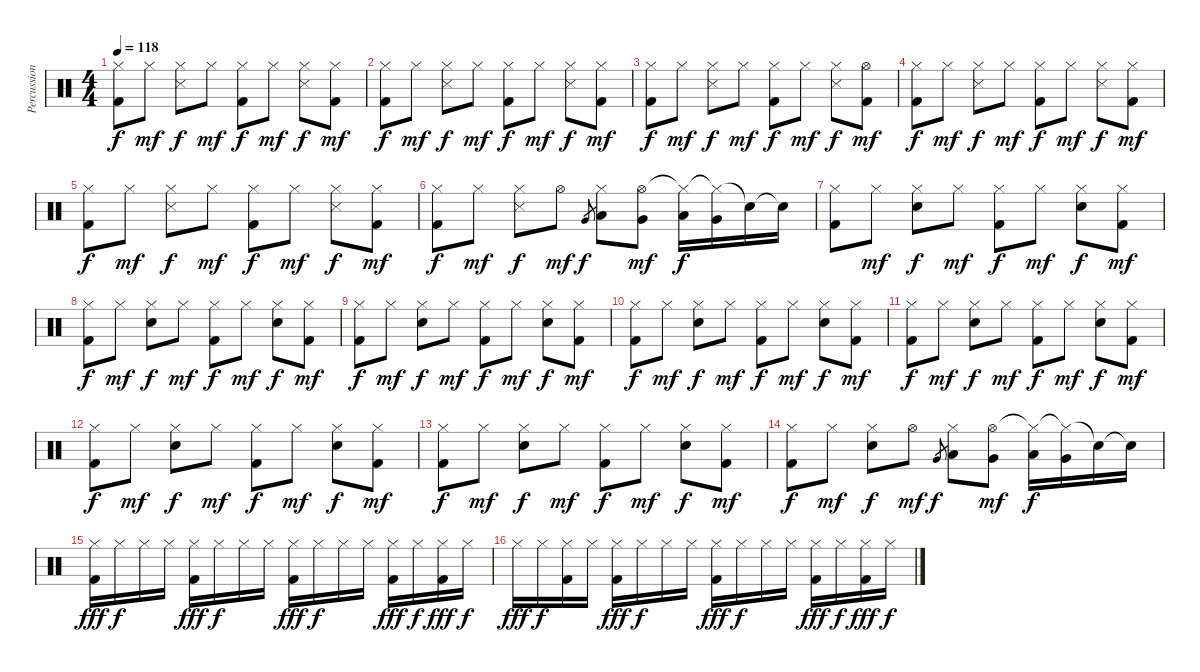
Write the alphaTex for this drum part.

\track ("Percussion" "Percussion") {instrument percussion}
\staff {score}
\articulation defaults
\ts (4 4)
\tempo 118
\clef neutral
\ks c
("Hi-Hat (closed)" "Kick (hit) 2").8{dy f} "Hi-Hat (closed)".8{dy mf} ("Hi-Hat (closed)" "Snare (side stick) 3").8{dy f} "Hi-Hat (closed)".8{dy mf} ("Hi-Hat (closed)" "Kick (hit) 2").8{dy f} "Hi-Hat (closed)".8{dy mf} ("Hi-Hat (closed)" "Snare (side stick) 3").8{dy f} ("Hi-Hat (closed)" "Kick (hit) 2").8{dy mf} |
("Hi-Hat (closed)" "Kick (hit) 2").8{dy f} "Hi-Hat (closed)".8{dy mf} ("Hi-Hat (closed)" "Snare (side stick) 3").8{dy f} "Hi-Hat (closed)".8{dy mf} ("Hi-Hat (closed)" "Kick (hit) 2").8{dy f} "Hi-Hat (closed)".8{dy mf} ("Hi-Hat (closed)" "Snare (side stick) 3").8{dy f} ("Hi-Hat (closed)" "Kick (hit) 2").8{dy mf} |
("Hi-Hat (closed)" "Kick (hit) 2").8{dy f} "Hi-Hat (closed)".8{dy mf} ("Hi-Hat (closed)" "Snare (side stick) 3").8{dy f} "Hi-Hat (closed)".8{dy mf} ("Hi-Hat (closed)" "Kick (hit) 2").8{dy f} "Hi-Hat (closed)".8{dy mf} ("Hi-Hat (closed)" "Snare (side stick) 3").8{dy f} ("Hi-Hat (open)" "Kick (hit) 2").8{dy mf} |
("Hi-Hat (closed)" "Kick (hit) 2").8{dy f} "Hi-Hat (closed)".8{dy mf} ("Hi-Hat (closed)" "Snare (side stick) 3").8{dy f} "Hi-Hat (closed)".8{dy mf} ("Hi-Hat (closed)" "Kick (hit) 2").8{dy f} "Hi-Hat (closed)".8{dy mf} ("Hi-Hat (closed)" "Snare (side stick) 3").8{dy f} ("Hi-Hat (closed)" "Kick (hit) 2").8{dy mf} |
("Hi-Hat (closed)" "Kick (hit) 2").8{dy f} "Hi-Hat (closed)".8{dy mf} ("Hi-Hat (closed)" "Snare (side stick) 3").8{dy f} "Hi-Hat (closed)".8{dy mf} ("Hi-Hat (closed)" "Kick (hit) 2").8{dy f} "Hi-Hat (closed)".8{dy mf} ("Hi-Hat (closed)" "Snare (side stick) 3").8{dy f} ("Hi-Hat (closed)" "Kick (hit) 2").8{dy mf} |
("Hi-Hat (closed)" "Kick (hit) 2").8{dy f} "Hi-Hat (closed)".8{dy mf} ("Hi-Hat (closed)" "Snare (side stick) 3").8{dy f} "Hi-Hat (open)".8{dy mf} "Very Low Tom (hit)".8{gr dy f} ("Hi-Hat (closed)" "Low Tom (hit)").8 ("Hi-Hat (open)" "Very Low Tom (hit)").8{dy mf} ("Hi-Hat (closed)"{t} "Low Tom (hit)").16{dy f} ("Hi-Hat (closed)"{t} "Very Low Tom (hit)").16 "Snare (hit)"{t}.16 "Snare (hit)"{t}.16 |
("Hi-Hat (closed)" "Kick (hit) 2").8 "Hi-Hat (closed)".8{dy mf} ("Hi-Hat (closed)" "Electric Snare (hit)").8{dy f} "Hi-Hat (closed)".8{dy mf} ("Hi-Hat (closed)" "Kick (hit) 2").8{dy f} "Hi-Hat (closed)".8{dy mf} ("Hi-Hat (closed)" "Electric Snare (hit)").8{dy f} ("Hi-Hat (closed)" "Kick (hit) 2").8{dy mf} |
("Hi-Hat (closed)" "Kick (hit) 2").8{dy f} "Hi-Hat (closed)".8{dy mf} ("Hi-Hat (closed)" "Electric Snare (hit)").8{dy f} "Hi-Hat (closed)".8{dy mf} ("Hi-Hat (closed)" "Kick (hit) 2").8{dy f} "Hi-Hat (closed)".8{dy mf} ("Hi-Hat (closed)" "Electric Snare (hit)").8{dy f} ("Hi-Hat (closed)" "Kick (hit) 2").8{dy mf} |
("Hi-Hat (closed)" "Kick (hit) 2").8{dy f} "Hi-Hat (closed)".8{dy mf} ("Hi-Hat (closed)" "Electric Snare (hit)").8{dy f} "Hi-Hat (closed)".8{dy mf} ("Hi-Hat (closed)" "Kick (hit) 2").8{dy f} "Hi-Hat (closed)".8{dy mf} ("Hi-Hat (closed)" "Electric Snare (hit)").8{dy f} ("Hi-Hat (closed)" "Kick (hit) 2").8{dy mf} |
("Hi-Hat (closed)" "Kick (hit) 2").8{dy f} "Hi-Hat (closed)".8{dy mf} ("Hi-Hat (closed)" "Electric Snare (hit)").8{dy f} "Hi-Hat (closed)".8{dy mf} ("Hi-Hat (closed)" "Kick (hit) 2").8{dy f} "Hi-Hat (closed)".8{dy mf} ("Hi-Hat (closed)" "Electric Snare (hit)").8{dy f} ("Hi-Hat (closed)" "Kick (hit) 2").8{dy mf} |
("Hi-Hat (closed)" "Kick (hit) 2").8{dy f} "Hi-Hat (closed)".8{dy mf} ("Hi-Hat (closed)" "Electric Snare (hit)").8{dy f} "Hi-Hat (closed)".8{dy mf} ("Hi-Hat (closed)" "Kick (hit) 2").8{dy f} "Hi-Hat (closed)".8{dy mf} ("Hi-Hat (closed)" "Electric Snare (hit)").8{dy f} ("Hi-Hat (closed)" "Kick (hit) 2").8{dy mf} |
("Hi-Hat (closed)" "Kick (hit) 2").8{dy f} "Hi-Hat (closed)".8{dy mf} ("Hi-Hat (closed)" "Electric Snare (hit)").8{dy f} "Hi-Hat (closed)".8{dy mf} ("Hi-Hat (closed)" "Kick (hit) 2").8{dy f} "Hi-Hat (closed)".8{dy mf} ("Hi-Hat (closed)" "Electric Snare (hit)").8{dy f} ("Hi-Hat (closed)" "Kick (hit) 2").8{dy mf} |
("Hi-Hat (closed)" "Kick (hit) 2").8{dy f} "Hi-Hat (closed)".8{dy mf} ("Hi-Hat (closed)" "Electric Snare (hit)").8{dy f} "Hi-Hat (closed)".8{dy mf} ("Hi-Hat (closed)" "Kick (hit) 2").8{dy f} "Hi-Hat (closed)".8{dy mf} ("Hi-Hat (closed)" "Electric Snare (hit)").8{dy f} ("Hi-Hat (closed)" "Kick (hit) 2").8{dy mf} |
("Hi-Hat (closed)" "Kick (hit) 2").8{dy f} "Hi-Hat (closed)".8{dy mf} ("Hi-Hat (closed)" "Electric Snare (hit)").8{dy f} "Hi-Hat (open)".8{dy mf} "Very Low Tom (hit)".8{gr dy f} ("Hi-Hat (closed)" "Low Tom (hit)").8 ("Hi-Hat (open)" "Very Low Tom (hit)").8{dy mf} ("Hi-Hat (closed)"{t} "Low Tom (hit)").16{dy f} ("Hi-Hat (closed)"{t} "Very Low Tom (hit)").16 "Snare (hit)"{t}.16 "Snare (hit)"{t}.16 |
("Hi-Hat (closed)" "Kick (hit) 2").16{dy fff} "Hi-Hat (closed)".16{dy f} "Hi-Hat (closed)".16 "Hi-Hat (closed)".16 ("Hi-Hat (closed)" "Kick (hit) 2").16{dy fff} "Hi-Hat (closed)".16{dy f} "Hi-Hat (closed)".16 "Hi-Hat (closed)".16 ("Hi-Hat (closed)" "Kick (hit) 2").16{dy fff} "Hi-Hat (closed)".16{dy f} "Hi-Hat (closed)".16 "Hi-Hat (closed)".16 ("Hi-Hat (closed)" "Kick (hit) 2").16{dy fff} "Hi-Hat (closed)".16{dy f} ("Hi-Hat (closed)" "Kick (hit) 2").16{dy fff} "Hi-Hat (closed)".16{dy f} |
"Hi-Hat (closed)".16{dy fff} "Hi-Hat (closed)".16{dy f} ("Hi-Hat (closed)" "Kick (hit) 2").16 "Hi-Hat (closed)".16 ("Hi-Hat (closed)" "Kick (hit) 2").16{dy fff} "Hi-Hat (closed)".16{dy f} "Hi-Hat (closed)".16 "Hi-Hat (closed)".16 ("Hi-Hat (closed)" "Kick (hit) 2").16{dy fff} "Hi-Hat (closed)".16{dy f} "Hi-Hat (closed)".16 "Hi-Hat (closed)".16 ("Hi-Hat (closed)" "Kick (hit) 2").16{dy fff} "Hi-Hat (closed)".16{dy f} ("Hi-Hat (closed)" "Kick (hit) 2").16{dy fff} "Hi-Hat (closed)".16{dy f}
